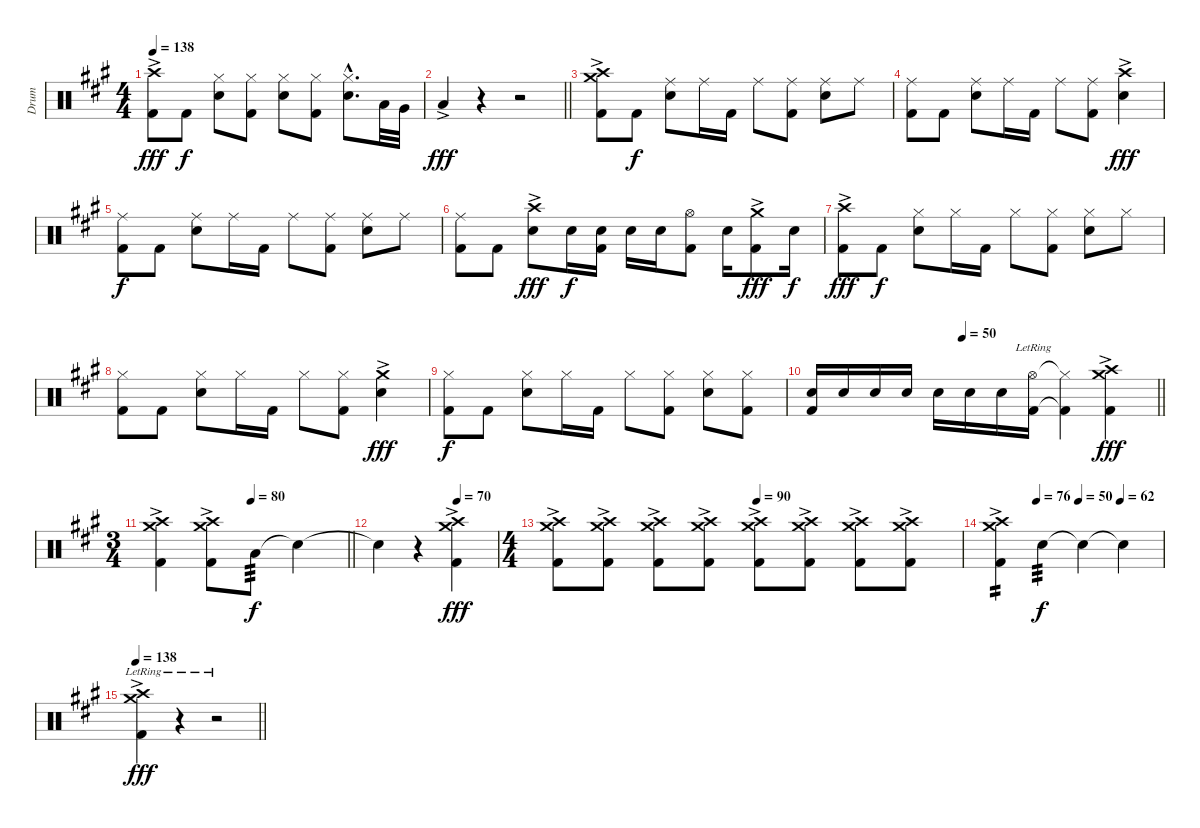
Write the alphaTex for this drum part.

\track ("Drum" "Drum") {instrument percussion}
\staff {score}
\articulation defaults
\ts (4 4)
\tempo 138
\clef neutral
\ks a
("Crash high (hit)"{ac} "Kick (hit) 2").8{dy fff} "Kick (hit) 2".8{dy f} ("Hi-Hat (closed)" "Snare (hit) 2").8 ("Hi-Hat (closed)" "Kick (hit) 2").8 ("Hi-Hat (closed)" "Snare (hit) 2").8 ("Hi-Hat (closed)" "Kick (hit) 2").8 ("Hi-Hat (closed)"{hac} "Snare (hit) 2"{hac}).8{d} "Low Tom (hit)".32 "Very Low Tom (hit)".32 |
\barLineRight lightlight "Low Floor Tom (hit)"{ac}.4{dy fff}
r.4 r.2 |
("Crash high (hit)"{ac} "Crash medium (hit)"{ac} "Kick (hit) 2").8 "Kick (hit) 2".8{dy f} ("Ride (middle)" "Snare (hit) 2").8 "Ride (middle)".16 "Kick (hit) 2".16 "Ride (middle)".8 ("Ride (middle)" "Kick (hit) 2").8 ("Ride (middle)" "Snare (hit) 2").8 "Ride (middle)".8 |
("Ride (middle)" "Kick (hit) 2").8 "Kick (hit) 2".8 ("Ride (middle)" "Snare (hit) 2").8 "Ride (middle)".16 "Kick (hit) 2".16 "Ride (middle)".8 ("Ride (middle)" "Kick (hit) 2").8 ("Crash high (hit)"{ac} "Snare (hit) 2").4{dy fff} |
("Ride (middle)" "Kick (hit) 2").8{dy f} "Kick (hit) 2".8 ("Ride (middle)" "Snare (hit) 2").8 "Ride (middle)".16 "Kick (hit) 2".16 "Ride (middle)".8 ("Ride (middle)" "Kick (hit) 2").8 ("Ride (middle)" "Snare (hit) 2").8 "Ride (middle)".8 |
("Ride (middle)" "Kick (hit) 2").8 "Kick (hit) 2".8 ("Crash high (hit)"{ac} "Snare (hit) 2").8{dy fff} "Snare (hit) 2".16{dy f} ("Snare (hit) 2" "Kick (hit) 2").16 "Snare (hit) 2".16 "Snare (hit) 2".16 ("Hi-Hat (open)" "Kick (hit) 2").8 "Snare (hit) 2".16 ("Crash medium (hit)"{ac} "Kick (hit) 2").8{dy fff} "Snare (hit) 2".16{dy f} |
("Crash high (hit)"{ac} "Kick (hit) 2").8{dy fff} "Kick (hit) 2".8{dy f} ("Hi-Hat (closed)" "Snare (hit) 2").8 "Hi-Hat (closed)".16 "Kick (hit) 2".16 "Hi-Hat (closed)".8 ("Hi-Hat (closed)" "Kick (hit) 2").8 ("Hi-Hat (closed)" "Snare (hit) 2").8 "Hi-Hat (closed)".8 |
("Hi-Hat (closed)" "Kick (hit) 2").8 "Kick (hit) 2".8 ("Hi-Hat (closed)" "Snare (hit) 2").8 "Hi-Hat (closed)".16 "Kick (hit) 2".16 "Hi-Hat (closed)".8 ("Hi-Hat (closed)" "Kick (hit) 2").8 ("Crash medium (hit)"{ac} "Snare (hit) 2").4{dy fff} |
("Hi-Hat (closed)" "Kick (hit) 2").8{dy f} "Kick (hit) 2".8 ("Hi-Hat (closed)" "Snare (hit) 2").8 "Hi-Hat (closed)".16 "Kick (hit) 2".16 "Hi-Hat (closed)".8 ("Hi-Hat (closed)" "Kick (hit) 2").8 ("Hi-Hat (closed)" "Snare (hit) 2").8 ("Hi-Hat (closed)" "Kick (hit) 2").8 |
\tempo (50 0.4375)
\barLineRight lightlight
("Snare (hit) 2" "Kick (hit) 2").16 "Snare (hit) 2".16 "Snare (hit) 2".16 "Snare (hit) 2".16 "Snare (hit) 2".16 "Snare (hit) 2".16 "Snare (hit) 2".16 ("Hi-Hat (open)"{lr} "Kick (hit) 2"{lr}).16 ("Hi-Hat (closed)"{t} "Kick (hit) 2"{t}).4 ("Crash medium (hit)"{ac} "Crash high (hit)"{ac} "Kick (hit) 2"{ac}).4{dy fff} |
\ts (3 4)
\tempo (80 0.5)
\barLineRight lightlight
("Crash medium (hit)"{ac} "Crash high (hit)"{ac} "Kick (hit) 2").4 ("Crash medium (hit)"{ac} "Crash high (hit)"{ac} "Kick (hit) 2").8 "Low Floor Tom (hit)".8{tp 3 dy f} "Snare (hit)"{t}.4 |
\tempo (70 0.6666666666666666)
"Snare (hit)"{t}.4 r.4 ("Crash medium (hit)"{ac} "Crash high (hit)"{ac} "Kick (hit) 2").4{dy fff} |
\ts (4 4)
\tempo (90 0.5)
("Crash medium (hit)"{ac} "Crash high (hit)"{ac} "Kick (hit) 2").8 ("Crash medium (hit)"{ac} "Crash high (hit)"{ac} "Kick (hit) 2").8 ("Crash medium (hit)"{ac} "Crash high (hit)"{ac} "Kick (hit) 2").8 ("Crash medium (hit)"{ac} "Crash high (hit)"{ac} "Kick (hit) 2").8 ("Crash medium (hit)"{ac} "Crash high (hit)"{ac} "Kick (hit) 2").8 ("Crash medium (hit)"{ac} "Crash high (hit)"{ac} "Kick (hit) 2").8 ("Crash medium (hit)"{ac} "Crash high (hit)"{ac} "Kick (hit) 2").8 ("Crash medium (hit)"{ac} "Crash high (hit)"{ac} "Kick (hit) 2").8 |
\tempo (76 0.25)
\tempo (50 0.5)
\tempo (62 0.75)
("Crash medium (hit)"{ac} "Crash high (hit)"{ac} "Kick (hit) 2").4{tp 2} "Snare (hit) 2".4{tp 3 dy f} "Snare (hit)"{t}.4 "Snare (hit)"{t}.4 |
\tempo 138
\barLineRight lightlight
("Crash medium (hit)"{ac lr} "Crash high (hit)"{ac lr} "Kick (hit) 2"{ac}).4{dy fff} r.4 r.2
